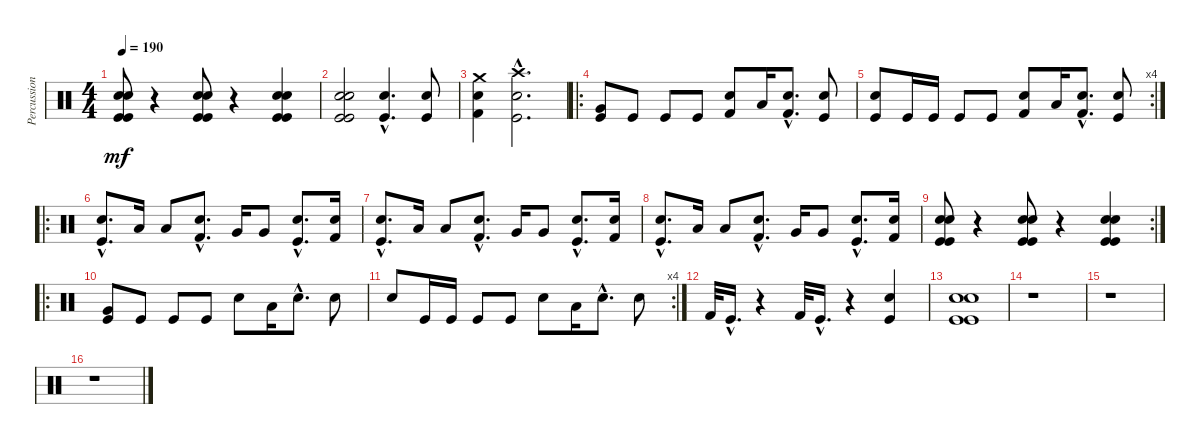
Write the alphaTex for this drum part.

\track ("Percussion" "Percussion") {instrument percussion}
\staff {score}
\articulation defaults
\ts (4 4)
\tempo 190
\clef neutral
\ks c
("Electric Snare (hit)" "Electric Snare (hit)" "Kick (hit)" "Kick (hit)").8{dy mf} r.4 ("Electric Snare (hit)" "Electric Snare (hit)" "Kick (hit)" "Kick (hit)").8 r.4 ("Electric Snare (hit)" "Electric Snare (hit)" "Kick (hit)" "Kick (hit)").4 |
("Electric Snare (hit)" "Electric Snare (hit)" "Kick (hit)" "Kick (hit)").2 ("Snare (hit) 2"{hac} "Kick (hit)"{hac}).4{d} ("Snare (hit) 2" "Kick (hit)").8 |
("Electric Snare (hit)" "Kick (hit) 2" "Crash medium (hit)").4 ("Snare (hit) 2"{hac} "Kick (hit)"{hac} "Crash high (hit)"{hac}).2{d} |
\ro
("Kick (hit)" "Very Low Tom (hit)").8 "Kick (hit)".8 "Kick (hit)".8 "Kick (hit)".8 ("Electric Snare (hit)" "Kick (hit) 2").8 "Low Tom (hit)".16 ("Electric Snare (hit)"{hac} "Kick (hit) 2"{hac}).8{d} ("Snare (hit) 2" "Kick (hit)").8 |
\rc 4
("Snare (hit) 2" "Kick (hit)").8 "Kick (hit)".16 "Kick (hit)".16 "Kick (hit)".8 "Kick (hit)".8 ("Electric Snare (hit)" "Kick (hit) 2").8 "Low Tom (hit)".16 ("Electric Snare (hit)"{hac} "Kick (hit) 2"{hac}).8{d} ("Snare (hit) 2" "Kick (hit)").8 |
\ro
("Electric Snare (hit)"{hac} "Kick (hit)"{hac}).8{d} "Low Tom (hit)".16 "Low Tom (hit)".8 ("Electric Snare (hit)"{hac} "Kick (hit) 2"{hac}).8{d} "Very Low Tom (hit)".16 "Very Low Tom (hit)".8 ("Snare (hit) 2"{hac} "Kick (hit)"{hac}).8{d} ("Electric Snare (hit)" "Kick (hit) 2").16 |
("Electric Snare (hit)"{hac} "Kick (hit)"{hac}).8{d} "Low Tom (hit)".16 "Low Tom (hit)".8 ("Electric Snare (hit)"{hac} "Kick (hit) 2"{hac}).8{d} "Very Low Tom (hit)".16 "Very Low Tom (hit)".8 ("Snare (hit) 2"{hac} "Kick (hit)"{hac}).8{d} ("Electric Snare (hit)" "Kick (hit) 2").16 |
("Electric Snare (hit)"{hac} "Kick (hit)"{hac}).8{d} "Low Tom (hit)".16 "Low Tom (hit)".8 ("Electric Snare (hit)"{hac} "Kick (hit) 2"{hac}).8{d} "Very Low Tom (hit)".16 "Very Low Tom (hit)".8 ("Snare (hit) 2"{hac} "Kick (hit)"{hac}).8{d} ("Electric Snare (hit)" "Kick (hit) 2").16 |
\rc 2
("Electric Snare (hit)" "Electric Snare (hit)" "Kick (hit)" "Kick (hit)").8 r.4 ("Electric Snare (hit)" "Electric Snare (hit)" "Kick (hit)" "Kick (hit)").8 r.4 ("Electric Snare (hit)" "Electric Snare (hit)" "Kick (hit)" "Kick (hit)").4 |
\ro
("Kick (hit)" "Very Low Tom (hit)").8 "Kick (hit)".8 "Kick (hit)".8 "Kick (hit)".8 "Electric Snare (hit)".8 "Low Tom (hit)".16 "Electric Snare (hit)"{hac}.8{d} "Snare (hit) 2".8 |
\rc 4 "Snare (hit) 2".8 "Kick (hit)".16 "Kick (hit)".16 "Kick (hit)".8 "Kick (hit)".8 "Electric Snare (hit)".8 "Low Tom (hit)".16 "Electric Snare (hit)"{hac}.8{d} "Snare (hit) 2".8
|
"Kick (hit) 2".32 "Kick (hit)"{hac}.16{d} r.4 "Kick (hit) 2".32 "Kick (hit)"{hac}.16{d} r.4 ("Electric Snare (hit)" "Kick (hit)").4 |
("Electric Snare (hit)" "Electric Snare (hit)" "Kick (hit)" "Kick (hit)").1 |
r.1 |
r.1 |
r.1
